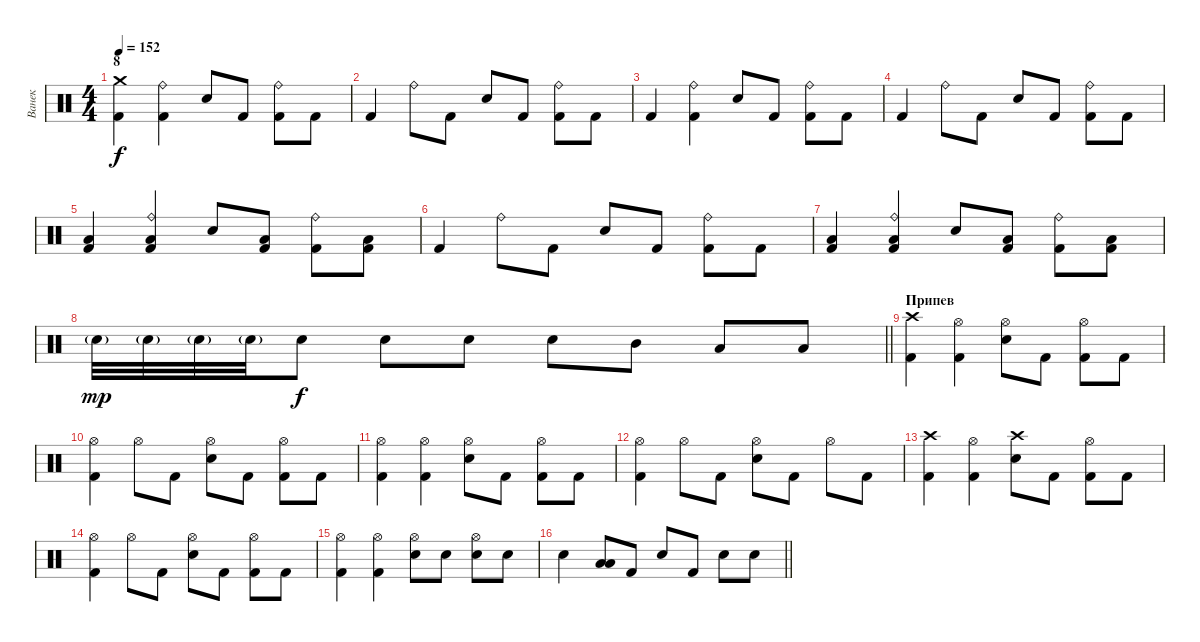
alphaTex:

\track ("Ванек" "Ванек") {instrument percussion}
\staff {score}
\articulation defaults
\ts (4 4)
\section ("" "8")
\tempo 152
\clef neutral
\ks c
("Crash medium (hit)" "Kick (hit) 2").4{dy f} ("Ride (bell)" "Kick (hit) 2").4 "Electric Snare (hit)".8 "Kick (hit) 2".8 ("Ride (bell)" "Kick (hit) 2").8 "Kick (hit) 2".8 |
"Kick (hit) 2".4 "Ride (bell)".8 "Kick (hit) 2".8 "Electric Snare (hit)".8 "Kick (hit) 2".8 ("Ride (bell)" "Kick (hit) 2").8 "Kick (hit) 2".8 |
"Kick (hit) 2".4 ("Ride (bell)" "Kick (hit) 2").4 "Electric Snare (hit)".8 "Kick (hit) 2".8 ("Ride (bell)" "Kick (hit) 2").8 "Kick (hit) 2".8 |
"Kick (hit) 2".4 "Ride (bell)".8 "Kick (hit) 2".8 "Electric Snare (hit)".8 "Kick (hit) 2".8 ("Ride (bell)" "Kick (hit) 2").8 "Kick (hit) 2".8 |
("Low Floor Tom (hit)" "Kick (hit) 2").4 ("Ride (bell)" "Low Floor Tom (hit)" "Kick (hit) 2").4 "Electric Snare (hit)".8 ("Low Floor Tom (hit)" "Kick (hit) 2").8 ("Ride (bell)" "Kick (hit) 2").8 ("Low Floor Tom (hit)" "Kick (hit) 2").8 |
"Kick (hit) 2".4 "Ride (bell)".8 "Kick (hit) 2".8 "Electric Snare (hit)".8 "Kick (hit) 2".8 ("Ride (bell)" "Kick (hit) 2").8 "Kick (hit) 2".8 |
("Low Floor Tom (hit)" "Kick (hit) 2").4 ("Ride (bell)" "Low Floor Tom (hit)" "Kick (hit) 2").4 "Electric Snare (hit)".8 ("Low Floor Tom (hit)" "Kick (hit) 2").8 ("Ride (bell)" "Kick (hit) 2").8 ("Low Floor Tom (hit)" "Kick (hit) 2").8 |
\barLineRight lightlight "Electric Snare (hit)"{g}.32{dy mp} "Electric Snare (hit)"{g}.32 "Electric Snare (hit)"{g}.32 "Electric Snare (hit)"{g}.32 "Electric Snare (hit)".8{dy f} "Electric Snare (hit)".8 "Electric Snare (hit)".8 "Electric Snare (hit)".8 "Mid Tom (hit)".8 "Low Tom (hit)".8 "Low Floor Tom (hit)".8
|
\section ("" "Припев")
("Crash high (hit)" "Kick (hit) 2").4 ("Hi-Hat (open)" "Kick (hit) 2").4 ("Hi-Hat (open)" "Electric Snare (hit)").8 "Kick (hit) 2".8 ("Hi-Hat (open)" "Kick (hit) 2").8 "Kick (hit) 2".8 |
("Hi-Hat (open)" "Kick (hit) 2").4 "Hi-Hat (open)".8 "Kick (hit) 2".8 ("Hi-Hat (open)" "Electric Snare (hit)").8 "Kick (hit) 2".8 ("Hi-Hat (open)" "Kick (hit) 2").8 "Kick (hit) 2".8 |
("Hi-Hat (open)" "Kick (hit) 2").4 ("Hi-Hat (open)" "Kick (hit) 2").4 ("Hi-Hat (open)" "Electric Snare (hit)").8 "Kick (hit) 2".8 ("Hi-Hat (open)" "Kick (hit) 2").8 "Kick (hit) 2".8 |
("Hi-Hat (open)" "Kick (hit) 2").4 "Hi-Hat (open)".8 "Kick (hit) 2".8 ("Hi-Hat (open)" "Electric Snare (hit)").8 "Kick (hit) 2".8 "Hi-Hat (open)".8 "Kick (hit) 2".8 |
("Crash high (hit)" "Kick (hit) 2").4 ("Hi-Hat (open)" "Kick (hit) 2").4 ("Crash high (hit)" "Electric Snare (hit)").8 "Kick (hit) 2".8 ("Hi-Hat (open)" "Kick (hit) 2").8 "Kick (hit) 2".8 |
("Hi-Hat (open)" "Kick (hit) 2").4 "Hi-Hat (open)".8 "Kick (hit) 2".8 ("Hi-Hat (open)" "Electric Snare (hit)").8 "Kick (hit) 2".8 ("Hi-Hat (open)" "Kick (hit) 2").8 "Kick (hit) 2".8 |
("Hi-Hat (open)" "Kick (hit) 2").4 ("Hi-Hat (open)" "Kick (hit) 2").4 ("Hi-Hat (open)" "Electric Snare (hit)").8 "Electric Snare (hit)".8 ("Hi-Hat (open)" "Electric Snare (hit)").8 "Electric Snare (hit)".8 |
\barLineRight lightlight "Electric Snare (hit)".4
("Low Tom (hit)" "Low Floor Tom (hit)").8 "Kick (hit) 2".8 "Electric Snare (hit)".8 "Kick (hit) 2".8 "Electric Snare (hit)".8 "Electric Snare (hit)".8
